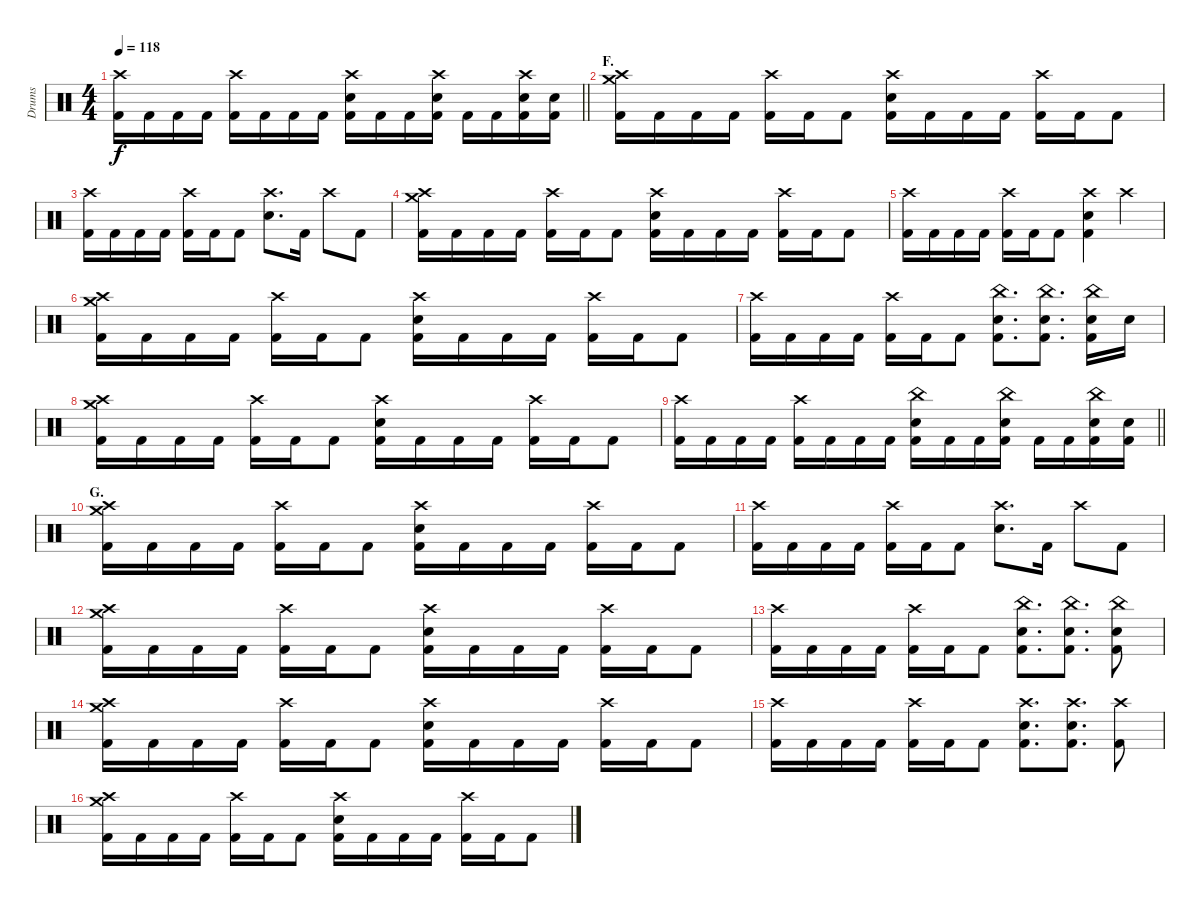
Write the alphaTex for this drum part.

\track ("Drums" "Drums") {instrument percussion}
\staff {score}
\articulation defaults
\ts (4 4)
\tempo 118
\clef neutral
\barLineRight lightlight
\ks c
("Crash high (hit)" "Kick (hit) 2").16{dy f} "Kick (hit) 2".16 "Kick (hit) 2".16 "Kick (hit) 2".16 ("Crash high (hit)" "Kick (hit) 2").16 "Kick (hit) 2".16 "Kick (hit) 2".16 "Kick (hit) 2".16 ("Crash high (hit)" "Electric Snare (hit)" "Kick (hit) 2").16 "Kick (hit) 2".16 "Kick (hit) 2".16 ("Crash high (hit)" "Electric Snare (hit)" "Kick (hit) 2").16 "Kick (hit) 2".16 "Kick (hit) 2".16 ("Crash high (hit)" "Electric Snare (hit)" "Kick (hit) 2").16 ("Electric Snare (hit)" "Kick (hit) 2").16 |
\section ("" "F.")
("Crash medium (hit)" "Crash high (hit)" "Kick (hit) 2").16 "Kick (hit) 2".16 "Kick (hit) 2".16 "Kick (hit) 2".16 ("Crash high (hit)" "Kick (hit) 2").16 "Kick (hit) 2".16 "Kick (hit) 2".8 ("Crash high (hit)" "Electric Snare (hit)" "Kick (hit) 2").16 "Kick (hit) 2".16 "Kick (hit) 2".16 "Kick (hit) 2".16 ("Crash high (hit)" "Kick (hit) 2").16 "Kick (hit) 2".16 "Kick (hit) 2".8 |
("Crash high (hit)" "Kick (hit) 2").16 "Kick (hit) 2".16 "Kick (hit) 2".16 "Kick (hit) 2".16 ("Crash high (hit)" "Kick (hit) 2").16 "Kick (hit) 2".16 "Kick (hit) 2".8 ("Crash high (hit)" "Electric Snare (hit)").8{d} "Kick (hit) 2".16 "Crash high (hit)".8 "Kick (hit) 2".8 |
("Crash medium (hit)" "Crash high (hit)" "Kick (hit) 2").16 "Kick (hit) 2".16 "Kick (hit) 2".16 "Kick (hit) 2".16 ("Crash high (hit)" "Kick (hit) 2").16 "Kick (hit) 2".16 "Kick (hit) 2".8 ("Crash high (hit)" "Electric Snare (hit)" "Kick (hit) 2").16 "Kick (hit) 2".16 "Kick (hit) 2".16 "Kick (hit) 2".16 ("Crash high (hit)" "Kick (hit) 2").16 "Kick (hit) 2".16 "Kick (hit) 2".8 |
("Crash high (hit)" "Kick (hit) 2").16 "Kick (hit) 2".16 "Kick (hit) 2".16 "Kick (hit) 2".16 ("Crash high (hit)" "Kick (hit) 2").16 "Kick (hit) 2".16 "Kick (hit) 2".8 ("Crash high (hit)" "Electric Snare (hit)" "Kick (hit) 2").4 "Crash high (hit)".4 |
("Crash medium (hit)" "Crash high (hit)" "Kick (hit) 2").16 "Kick (hit) 2".16 "Kick (hit) 2".16 "Kick (hit) 2".16 ("Crash high (hit)" "Kick (hit) 2").16 "Kick (hit) 2".16 "Kick (hit) 2".8 ("Crash high (hit)" "Electric Snare (hit)" "Kick (hit) 2").16 "Kick (hit) 2".16 "Kick (hit) 2".16 "Kick (hit) 2".16 ("Crash high (hit)" "Kick (hit) 2").16 "Kick (hit) 2".16 "Kick (hit) 2".8 |
("Crash high (hit)" "Kick (hit) 2").16 "Kick (hit) 2".16 "Kick (hit) 2".16 "Kick (hit) 2".16 ("Crash high (hit)" "Kick (hit) 2").16 "Kick (hit) 2".16 "Kick (hit) 2".8 ("China (hit)" "Electric Snare (hit)" "Kick (hit) 2").8{d} ("China (hit)" "Electric Snare (hit)" "Kick (hit) 2").8{d} ("China (hit)" "Electric Snare (hit)" "Kick (hit) 2").16 "Electric Snare (hit)".16 |
("Crash medium (hit)" "Crash high (hit)" "Kick (hit) 2").16 "Kick (hit) 2".16 "Kick (hit) 2".16 "Kick (hit) 2".16 ("Crash high (hit)" "Kick (hit) 2").16 "Kick (hit) 2".16 "Kick (hit) 2".8 ("Crash high (hit)" "Electric Snare (hit)" "Kick (hit) 2").16 "Kick (hit) 2".16 "Kick (hit) 2".16 "Kick (hit) 2".16 ("Crash high (hit)" "Kick (hit) 2").16 "Kick (hit) 2".16 "Kick (hit) 2".8 |
\barLineRight lightlight
("Crash high (hit)" "Kick (hit) 2").16 "Kick (hit) 2".16 "Kick (hit) 2".16 "Kick (hit) 2".16 ("Crash high (hit)" "Kick (hit) 2").16 "Kick (hit) 2".16 "Kick (hit) 2".16 "Kick (hit) 2".16 ("China (hit)" "Electric Snare (hit)" "Kick (hit) 2").16 "Kick (hit) 2".16 "Kick (hit) 2".16 ("China (hit)" "Electric Snare (hit)" "Kick (hit) 2").16 "Kick (hit) 2".16 "Kick (hit) 2".16 ("China (hit)" "Electric Snare (hit)" "Kick (hit) 2").16 ("Electric Snare (hit)" "Kick (hit) 2").16 |
\section ("" "G.")
("Crash medium (hit)" "Crash high (hit)" "Kick (hit) 2").16 "Kick (hit) 2".16 "Kick (hit) 2".16 "Kick (hit) 2".16 ("Crash high (hit)" "Kick (hit) 2").16 "Kick (hit) 2".16 "Kick (hit) 2".8 ("Crash high (hit)" "Electric Snare (hit)" "Kick (hit) 2").16 "Kick (hit) 2".16 "Kick (hit) 2".16 "Kick (hit) 2".16 ("Crash high (hit)" "Kick (hit) 2").16 "Kick (hit) 2".16 "Kick (hit) 2".8 |
("Crash high (hit)" "Kick (hit) 2").16 "Kick (hit) 2".16 "Kick (hit) 2".16 "Kick (hit) 2".16 ("Crash high (hit)" "Kick (hit) 2").16 "Kick (hit) 2".16 "Kick (hit) 2".8 ("Crash high (hit)" "Electric Snare (hit)").8{d} "Kick (hit) 2".16 "Crash high (hit)".8 "Kick (hit) 2".8 |
("Crash medium (hit)" "Crash high (hit)" "Kick (hit) 2").16 "Kick (hit) 2".16 "Kick (hit) 2".16 "Kick (hit) 2".16 ("Crash high (hit)" "Kick (hit) 2").16 "Kick (hit) 2".16 "Kick (hit) 2".8 ("Crash high (hit)" "Electric Snare (hit)" "Kick (hit) 2").16 "Kick (hit) 2".16 "Kick (hit) 2".16 "Kick (hit) 2".16 ("Crash high (hit)" "Kick (hit) 2").16 "Kick (hit) 2".16 "Kick (hit) 2".8 |
("Crash high (hit)" "Kick (hit) 2").16 "Kick (hit) 2".16 "Kick (hit) 2".16 "Kick (hit) 2".16 ("Crash high (hit)" "Kick (hit) 2").16 "Kick (hit) 2".16 "Kick (hit) 2".8 ("China (hit)" "Electric Snare (hit)" "Kick (hit) 2").8{d} ("China (hit)" "Electric Snare (hit)" "Kick (hit) 2").8{d} ("China (hit)" "Electric Snare (hit)" "Kick (hit) 2").8 |
("Crash medium (hit)" "Crash high (hit)" "Kick (hit) 2").16 "Kick (hit) 2".16 "Kick (hit) 2".16 "Kick (hit) 2".16 ("Crash high (hit)" "Kick (hit) 2").16 "Kick (hit) 2".16 "Kick (hit) 2".8 ("Crash high (hit)" "Electric Snare (hit)" "Kick (hit) 2").16 "Kick (hit) 2".16 "Kick (hit) 2".16 "Kick (hit) 2".16 ("Crash high (hit)" "Kick (hit) 2").16 "Kick (hit) 2".16 "Kick (hit) 2".8 |
("Crash high (hit)" "Kick (hit) 2").16 "Kick (hit) 2".16 "Kick (hit) 2".16 "Kick (hit) 2".16 ("Crash high (hit)" "Kick (hit) 2").16 "Kick (hit) 2".16 "Kick (hit) 2".8 ("Crash high (hit)" "Electric Snare (hit)" "Kick (hit) 2").8{d} ("Crash high (hit)" "Electric Snare (hit)" "Kick (hit) 2").8{d} ("Crash high (hit)" "Kick (hit) 2").8 |
("Crash medium (hit)" "Crash high (hit)" "Kick (hit) 2").16 "Kick (hit) 2".16 "Kick (hit) 2".16 "Kick (hit) 2".16 ("Crash high (hit)" "Kick (hit) 2").16 "Kick (hit) 2".16 "Kick (hit) 2".8 ("Crash high (hit)" "Electric Snare (hit)" "Kick (hit) 2").16 "Kick (hit) 2".16 "Kick (hit) 2".16 "Kick (hit) 2".16 ("Crash high (hit)" "Kick (hit) 2").16 "Kick (hit) 2".16 "Kick (hit) 2".8
